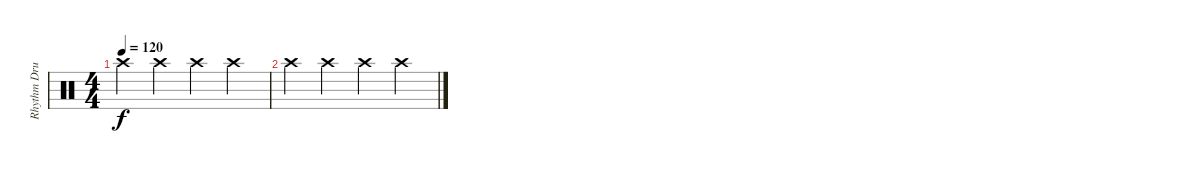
\track ("Rhythm Drums (crash cymbal)" "Rhythm Dru") {instrument percussion}
\staff {score}
\articulation defaults
\ts (4 4)
\tempo 120
\clef neutral
\ks c "Crash high (hit)".4{dy f} "Crash high (hit)".4 "Crash high (hit)".4 "Crash high (hit)".4
|
"Crash high (hit)".4 "Crash high (hit)".4 "Crash high (hit)".4 "Crash high (hit)".4
